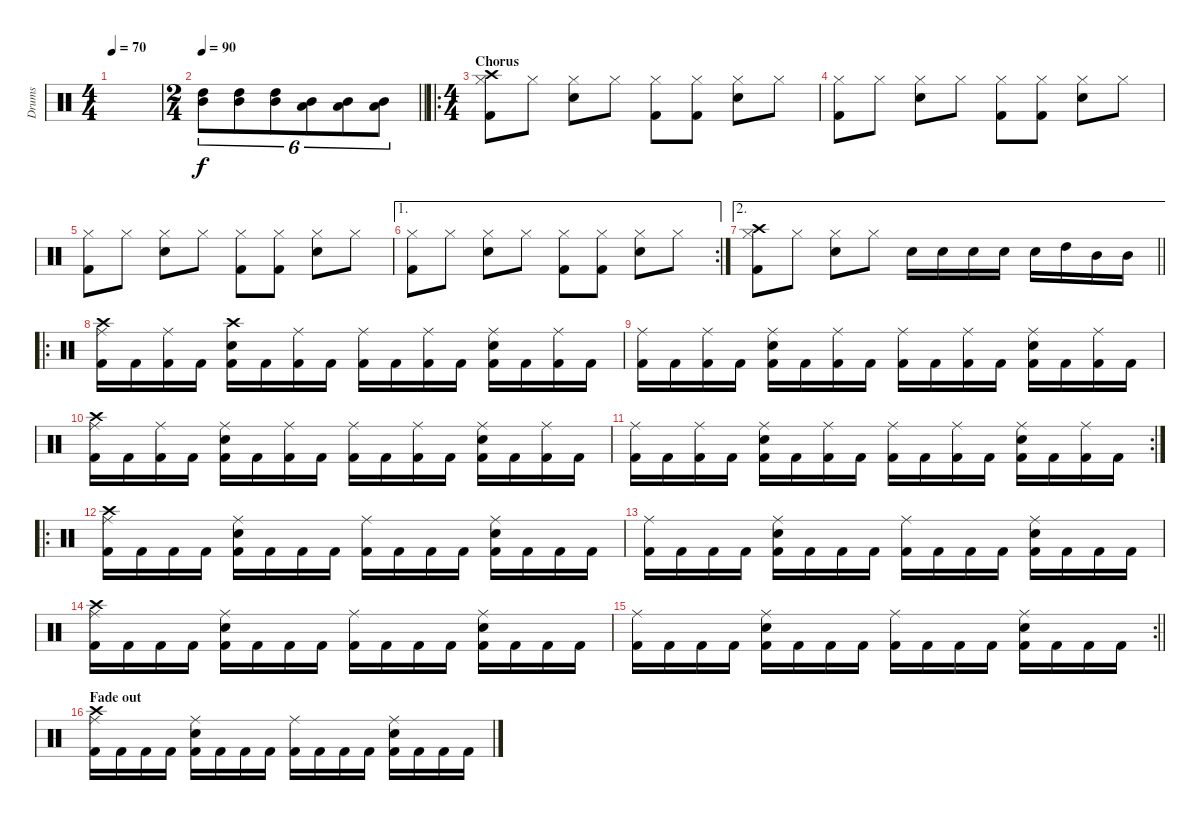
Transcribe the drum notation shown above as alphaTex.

\track ("Drums" "Drums") {instrument percussion}
\staff {score}
\articulation defaults
\ts (4 4)
\tempo 70
\clef neutral
\ks c
|
\ts (2 4)
\tempo 90
\barLineRight lightlight
("High Tom (hit)" "Mid Tom (hit)").8{tu (6 4)} ("High Tom (hit)" "Mid Tom (hit)").8{tu (6 4)} ("High Tom (hit)" "Mid Tom (hit)").8{tu (6 4)} ("Mid Tom (hit)" "Low Tom (hit)").8{tu (6 4)} ("Mid Tom (hit)" "Low Tom (hit)").8{tu (6 4)} ("Mid Tom (hit)" "Low Tom (hit)").8{tu (6 4)} |
\ro
\ts (4 4)
\section ("" "Chorus")
("Crash high (hit)" "Hi-Hat (closed)" "Kick (hit) 2").8 "Hi-Hat (closed)".8 ("Hi-Hat (closed)" "Snare (hit) 2").8 "Hi-Hat (closed)".8 ("Hi-Hat (closed)" "Kick (hit) 2").8 ("Hi-Hat (closed)" "Kick (hit) 2").8 ("Hi-Hat (closed)" "Snare (hit) 2").8 "Hi-Hat (closed)".8 |
("Hi-Hat (closed)" "Kick (hit) 2").8 "Hi-Hat (closed)".8 ("Hi-Hat (closed)" "Snare (hit) 2").8 "Hi-Hat (closed)".8 ("Hi-Hat (closed)" "Kick (hit) 2").8 ("Hi-Hat (closed)" "Kick (hit) 2").8 ("Hi-Hat (closed)" "Snare (hit) 2").8 "Hi-Hat (closed)".8 |
("Hi-Hat (closed)" "Kick (hit) 2").8 "Hi-Hat (closed)".8 ("Hi-Hat (closed)" "Snare (hit) 2").8 "Hi-Hat (closed)".8 ("Hi-Hat (closed)" "Kick (hit) 2").8 ("Hi-Hat (closed)" "Kick (hit) 2").8 ("Hi-Hat (closed)" "Snare (hit) 2").8 "Hi-Hat (closed)".8 |
\ae 1
\rc 2
("Hi-Hat (closed)" "Kick (hit) 2").8 "Hi-Hat (closed)".8 ("Hi-Hat (closed)" "Snare (hit) 2").8 "Hi-Hat (closed)".8 ("Hi-Hat (closed)" "Kick (hit) 2").8 ("Hi-Hat (closed)" "Kick (hit) 2").8 ("Hi-Hat (closed)" "Snare (hit) 2").8 "Hi-Hat (closed)".8 |
\ae 2
\barLineRight lightlight
("Crash high (hit)" "Hi-Hat (closed)" "Kick (hit) 2").8 "Hi-Hat (closed)".8 ("Hi-Hat (closed)" "Snare (hit) 2").8 "Hi-Hat (closed)".8 "Snare (hit) 2".16 "Snare (hit) 2".16 "Snare (hit) 2".16 "Snare (hit) 2".16 "Snare (hit) 2".16 "High Tom (hit)".16 "Mid Tom (hit)".16 "Mid Tom (hit)".16 |
\ro
("Crash high (hit)" "Ride (middle)" "Kick (hit) 2").16 "Kick (hit) 2".16 ("Ride (middle)" "Kick (hit) 2").16 "Kick (hit) 2".16 ("Crash high (hit)" "Snare (hit) 2" "Kick (hit) 2").16 "Kick (hit) 2".16 ("Ride (middle)" "Kick (hit) 2").16 "Kick (hit) 2".16 ("Ride (middle)" "Kick (hit) 2").16 "Kick (hit) 2".16 ("Ride (middle)" "Kick (hit) 2").16 "Kick (hit) 2".16 ("Ride (middle)" "Snare (hit) 2" "Kick (hit) 2").16 "Kick (hit) 2".16 ("Ride (middle)" "Kick (hit) 2").16 "Kick (hit) 2".16 |
("Ride (middle)" "Kick (hit) 2").16 "Kick (hit) 2".16 ("Ride (middle)" "Kick (hit) 2").16 "Kick (hit) 2".16 ("Ride (middle)" "Snare (hit) 2" "Kick (hit) 2").16 "Kick (hit) 2".16 ("Ride (middle)" "Kick (hit) 2").16 "Kick (hit) 2".16 ("Ride (middle)" "Kick (hit) 2").16 "Kick (hit) 2".16 ("Ride (middle)" "Kick (hit) 2").16 "Kick (hit) 2".16 ("Ride (middle)" "Snare (hit) 2" "Kick (hit) 2").16 "Kick (hit) 2".16 ("Ride (middle)" "Kick (hit) 2").16 "Kick (hit) 2".16 |
("Crash high (hit)" "Ride (middle)" "Kick (hit) 2").16 "Kick (hit) 2".16 ("Ride (middle)" "Kick (hit) 2").16 "Kick (hit) 2".16 ("Ride (middle)" "Snare (hit) 2" "Kick (hit) 2").16 "Kick (hit) 2".16 ("Ride (middle)" "Kick (hit) 2").16 "Kick (hit) 2".16 ("Ride (middle)" "Kick (hit) 2").16 "Kick (hit) 2".16 ("Ride (middle)" "Kick (hit) 2").16 "Kick (hit) 2".16 ("Ride (middle)" "Snare (hit) 2" "Kick (hit) 2").16 "Kick (hit) 2".16 ("Ride (middle)" "Kick (hit) 2").16 "Kick (hit) 2".16 |
\rc 2
("Ride (middle)" "Kick (hit) 2").16 "Kick (hit) 2".16 ("Ride (middle)" "Kick (hit) 2").16 "Kick (hit) 2".16 ("Ride (middle)" "Snare (hit) 2" "Kick (hit) 2").16 "Kick (hit) 2".16 ("Ride (middle)" "Kick (hit) 2").16 "Kick (hit) 2".16 ("Ride (middle)" "Kick (hit) 2").16 "Kick (hit) 2".16 ("Ride (middle)" "Kick (hit) 2").16 "Kick (hit) 2".16 ("Ride (middle)" "Snare (hit) 2" "Kick (hit) 2").16 "Kick (hit) 2".16 ("Ride (middle)" "Kick (hit) 2").16 "Kick (hit) 2".16 |
\ro
("Crash high (hit)" "Ride (middle)" "Kick (hit) 2").16 "Kick (hit) 2".16 "Kick (hit) 2".16 "Kick (hit) 2".16 ("Ride (middle)" "Snare (hit) 2" "Kick (hit) 2").16 "Kick (hit) 2".16 "Kick (hit) 2".16 "Kick (hit) 2".16 ("Ride (middle)" "Kick (hit) 2").16 "Kick (hit) 2".16 "Kick (hit) 2".16 "Kick (hit) 2".16 ("Ride (middle)" "Snare (hit) 2" "Kick (hit) 2").16 "Kick (hit) 2".16 "Kick (hit) 2".16 "Kick (hit) 2".16 |
("Ride (middle)" "Kick (hit) 2").16 "Kick (hit) 2".16 "Kick (hit) 2".16 "Kick (hit) 2".16 ("Ride (middle)" "Snare (hit) 2" "Kick (hit) 2").16 "Kick (hit) 2".16 "Kick (hit) 2".16 "Kick (hit) 2".16 ("Ride (middle)" "Kick (hit) 2").16 "Kick (hit) 2".16 "Kick (hit) 2".16 "Kick (hit) 2".16 ("Ride (middle)" "Snare (hit) 2" "Kick (hit) 2").16 "Kick (hit) 2".16 "Kick (hit) 2".16 "Kick (hit) 2".16 |
("Crash high (hit)" "Ride (middle)" "Kick (hit) 2").16 "Kick (hit) 2".16 "Kick (hit) 2".16 "Kick (hit) 2".16 ("Ride (middle)" "Snare (hit) 2" "Kick (hit) 2").16 "Kick (hit) 2".16 "Kick (hit) 2".16 "Kick (hit) 2".16 ("Ride (middle)" "Kick (hit) 2").16 "Kick (hit) 2".16 "Kick (hit) 2".16 "Kick (hit) 2".16 ("Ride (middle)" "Snare (hit) 2" "Kick (hit) 2").16 "Kick (hit) 2".16 "Kick (hit) 2".16 "Kick (hit) 2".16 |
\rc 2
\barLineRight lightlight
("Ride (middle)" "Kick (hit) 2").16 "Kick (hit) 2".16 "Kick (hit) 2".16 "Kick (hit) 2".16 ("Ride (middle)" "Snare (hit) 2" "Kick (hit) 2").16 "Kick (hit) 2".16 "Kick (hit) 2".16 "Kick (hit) 2".16 ("Ride (middle)" "Kick (hit) 2").16 "Kick (hit) 2".16 "Kick (hit) 2".16 "Kick (hit) 2".16 ("Ride (middle)" "Snare (hit) 2" "Kick (hit) 2").16 "Kick (hit) 2".16 "Kick (hit) 2".16 "Kick (hit) 2".16 |
\section ("" "Fade out")
("Crash high (hit)" "Ride (middle)" "Kick (hit) 2").16 "Kick (hit) 2".16 "Kick (hit) 2".16 "Kick (hit) 2".16 ("Ride (middle)" "Snare (hit) 2" "Kick (hit) 2").16 "Kick (hit) 2".16 "Kick (hit) 2".16 "Kick (hit) 2".16 ("Ride (middle)" "Kick (hit) 2").16 "Kick (hit) 2".16 "Kick (hit) 2".16 "Kick (hit) 2".16 ("Ride (middle)" "Snare (hit) 2" "Kick (hit) 2").16 "Kick (hit) 2".16 "Kick (hit) 2".16 "Kick (hit) 2".16
